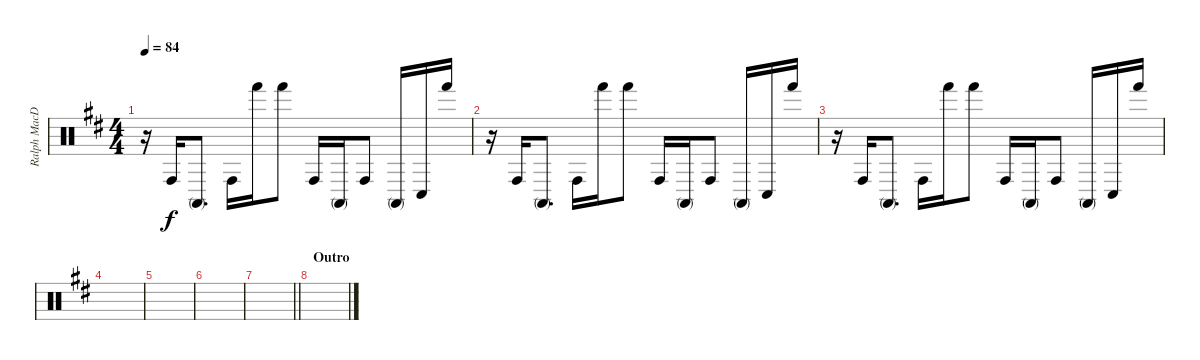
\track ("Ralph MacDonald" "Ralph MacD") {instrument percussion}
\staff {score}
\articulation defaults
\ts (4 4)
\tempo 84
\clef neutral
\ks d
r.16{dy f} "Conga high (hit)".16 "Conga high (mute)".8{d} "Conga high (hit)".16 "Hand (hit)".16 "Hand (hit)".8 "Conga high (hit)".16 "Conga high (mute)".16 "Conga high (hit)".8 "Conga high (mute)".16 "Conga low (hit)".16 "Hand (hit)".16 |
r.16 "Conga high (hit)".16 "Conga high (mute)".8{d} "Conga high (hit)".16 "Hand (hit)".16 "Hand (hit)".8 "Conga high (hit)".16 "Conga high (mute)".16 "Conga high (hit)".8 "Conga high (mute)".16 "Conga low (hit)".16 "Hand (hit)".16 |
r.16 "Conga high (hit)".16 "Conga high (mute)".8{d} "Conga high (hit)".16 "Hand (hit)".16 "Hand (hit)".8 "Conga high (hit)".16 "Conga high (mute)".16 "Conga high (hit)".8 "Conga high (mute)".16 "Conga low (hit)".16 "Hand (hit)".16 |
|
|
|
\barLineRight lightlight
|
\section ("" "Outro")
